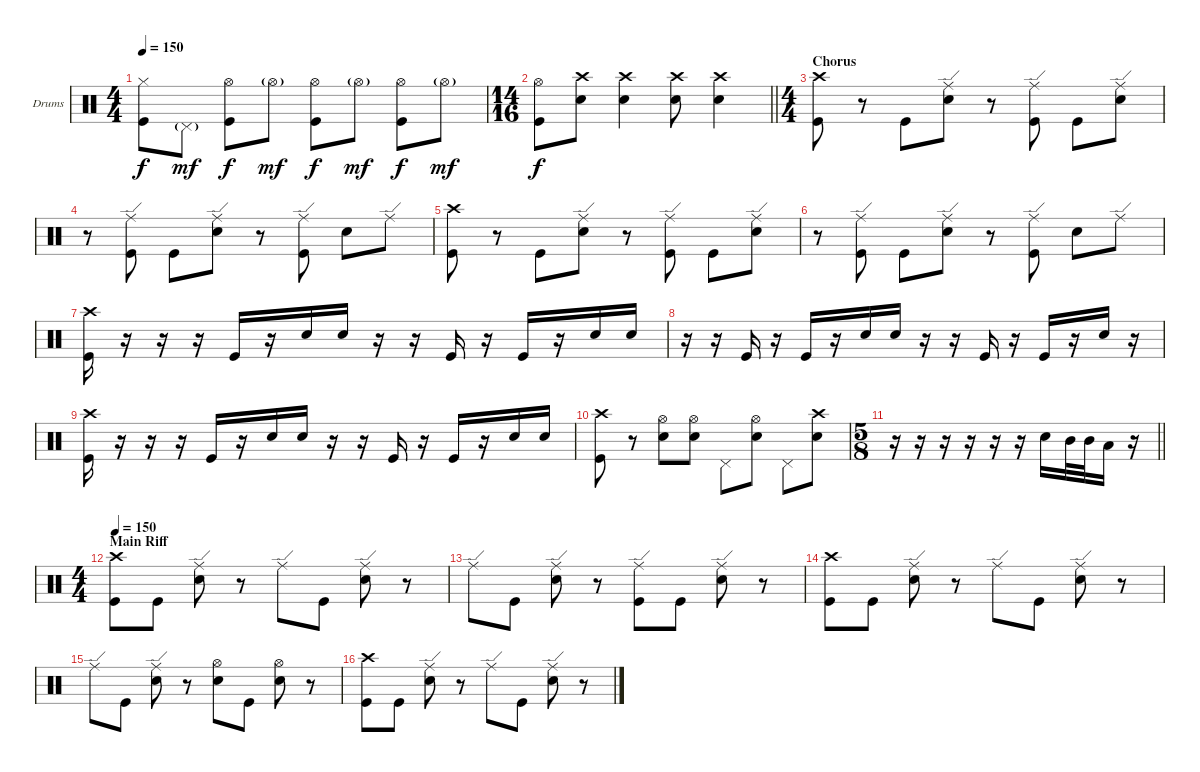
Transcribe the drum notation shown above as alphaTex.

\bracketExtendMode nobrackets
\firstSystemTrackNameOrientation horizontal
\otherSystemsTrackNameOrientation horizontal
\track ("Drumkit" "Drums") {instrument percussion}
\staff {score}
\articulation defaults
\ts (4 4)
\tempo 150
\clef neutral
\ks c
("Hi-Hat (closed)" "Kick (hit)").8{dy f} "Pedal Hi-Hat (hit)"{g}.8{dy mf} ("Hi-Hat (open)" "Kick (hit)").8{dy f} "Hi-Hat (open)"{g}.8{dy mf} ("Hi-Hat (open)" "Kick (hit)").8{dy f} "Hi-Hat (open)"{g}.8{dy mf} ("Hi-Hat (open)" "Kick (hit)").8{dy f} "Hi-Hat (open)"{g}.8{dy mf} |
\ts (14 16)
\beaming (8 7)
\barLineRight lightlight
("Hi-Hat (open)" "Kick (hit)").8{dy f} ("Crash high (hit)" "Snare (hit) 2").8 ("Crash high (hit)" "Snare (hit) 2").4 ("Crash high (hit)" "Snare (hit) 2").8 ("Crash high (hit)" "Snare (hit) 2").4 |
\ts (4 4)
\beaming (8 2 2 2 2)
\section ("" "Chorus")
("Crash high (hit)" "Kick (hit)").8 r.8 "Kick (hit)".8 ("Ride (edge)" "Snare (hit) 2").8 r.8 ("Ride (edge)" "Kick (hit)").8 "Kick (hit)".8 ("Ride (edge)" "Snare (hit) 2").8 |
r.8 ("Ride (edge)" "Kick (hit)").8 "Kick (hit)".8 ("Ride (edge)" "Snare (hit) 2").8 r.8 ("Ride (edge)" "Kick (hit)").8 "Snare (hit) 2".8 "Ride (edge)".8 |
("Crash high (hit)" "Kick (hit)").8 r.8 "Kick (hit)".8 ("Ride (edge)" "Snare (hit) 2").8 r.8 ("Ride (edge)" "Kick (hit)").8 "Kick (hit)".8 ("Ride (edge)" "Snare (hit) 2").8 |
r.8 ("Ride (edge)" "Kick (hit)").8 "Kick (hit)".8 ("Ride (edge)" "Snare (hit) 2").8 r.8 ("Ride (edge)" "Kick (hit)").8 "Snare (hit) 2".8 "Ride (edge)".8 |
("Crash high (hit)" "Kick (hit)").16 r.16 r.16 r.16 "Kick (hit)".16 r.16 "Snare (hit) 2".16 "Snare (hit) 2".16 r.16 r.16 "Kick (hit)".16 r.16 "Kick (hit)".16 r.16 "Snare (hit) 2".16 "Snare (hit) 2".16 |
r.16 r.16 "Kick (hit)".16 r.16 "Kick (hit)".16 r.16 "Snare (hit) 2".16 "Snare (hit) 2".16 r.16 r.16 "Kick (hit)".16 r.16 "Kick (hit)".16 r.16 "Snare (hit) 2".16 r.16 |
("Crash high (hit)" "Kick (hit)").16 r.16 r.16 r.16 "Kick (hit)".16 r.16 "Snare (hit) 2".16 "Snare (hit) 2".16 r.16 r.16 "Kick (hit)".16 r.16 "Kick (hit)".16 r.16 "Snare (hit) 2".16 "Snare (hit) 2".16 |
("Crash high (hit)" "Kick (hit)").8 r.8 ("Hi-Hat (open)" "Snare (hit) 2").8 ("Hi-Hat (open)" "Snare (hit) 2").8 "Pedal Hi-Hat (hit)".8 ("Hi-Hat (open)" "Snare (hit) 2").8 "Pedal Hi-Hat (hit)".8 ("Crash high (hit)" "Snare (hit) 2").8 |
\ts (5 8)
\beaming (8 3 2)
\barLineRight lightlight
r.16 r.16 r.16 r.16 r.16 r.16 "Snare (hit) 2".16 "Mid Tom (hit)".32 "Mid Tom (hit)".32 "Low Tom (hit)".16 r.16 |
\ts (4 4)
\beaming (8 2 2 2 2)
\section ("" "Main Riff")
\tempo 150
("Crash high (hit)" "Kick (hit)").8 "Kick (hit)".8 ("Ride (edge)" "Snare (hit) 2").8 r.8 "Ride (edge)".8 "Kick (hit)".8 ("Ride (edge)" "Snare (hit) 2").8 r.8 |
"Ride (edge)".8 "Kick (hit)".8 ("Ride (edge)" "Snare (hit) 2").8 r.8 ("Ride (edge)" "Kick (hit)").8 "Kick (hit)".8 ("Ride (edge)" "Snare (hit) 2").8 r.8 |
("Crash high (hit)" "Kick (hit)").8 "Kick (hit)".8 ("Ride (edge)" "Snare (hit) 2").8 r.8 "Ride (edge)".8 "Kick (hit)".8 ("Ride (edge)" "Snare (hit) 2").8 r.8 |
"Ride (edge)".8 "Kick (hit)".8 ("Ride (edge)" "Snare (hit) 2").8 r.8 ("Hi-Hat (open)" "Snare (hit) 2").8 "Kick (hit)".8 ("Hi-Hat (open)" "Snare (hit) 2").8 r.8 |
("Crash high (hit)" "Kick (hit)").8 "Kick (hit)".8 ("Ride (edge)" "Snare (hit) 2").8 r.8 "Ride (edge)".8 "Kick (hit)".8 ("Ride (edge)" "Snare (hit) 2").8 r.8
